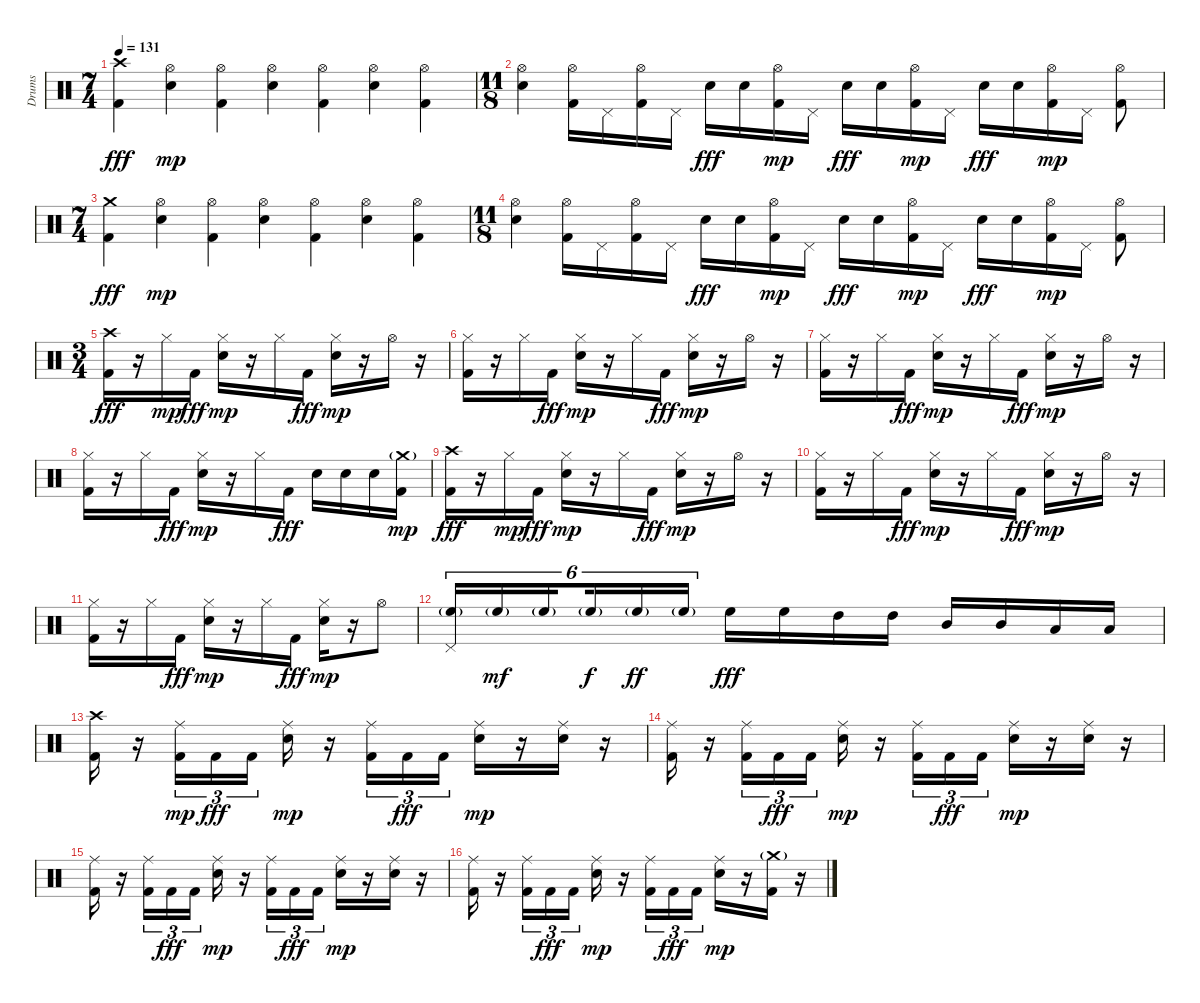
\track ("Drums" "Drums") {instrument percussion}
\staff {score}
\articulation defaults
\ts (7 4)
\tempo 131
\clef neutral
\ks c
("Kick (hit) 2" "Crash high (hit)").4{dy fff} ("Electric Snare (hit)" "Hi-Hat (open)").4{dy mp} ("Kick (hit) 2" "Hi-Hat (open)").4 ("Electric Snare (hit)" "Hi-Hat (open)").4 ("Kick (hit) 2" "Hi-Hat (open)").4 ("Electric Snare (hit)" "Hi-Hat (open)").4 ("Kick (hit) 2" "Hi-Hat (open)").4 |
\ts (11 8)
("Electric Snare (hit)" "Hi-Hat (open)").4 ("Kick (hit) 2" "Hi-Hat (open)").16 "Pedal Hi-Hat (hit)".16 ("Kick (hit) 2" "Hi-Hat (open)").16 "Pedal Hi-Hat (hit)".16 "Electric Snare (hit)".16{dy fff} "Electric Snare (hit)".16 ("Kick (hit) 2" "Hi-Hat (open)").16{dy mp} "Pedal Hi-Hat (hit)".16 "Electric Snare (hit)".16{dy fff} "Electric Snare (hit)".16 ("Kick (hit) 2" "Hi-Hat (open)").16{dy mp} "Pedal Hi-Hat (hit)".16 "Electric Snare (hit)".16{dy fff} "Electric Snare (hit)".16 ("Kick (hit) 2" "Hi-Hat (open)").16{dy mp} "Pedal Hi-Hat (hit)".16 ("Kick (hit) 2" "Hi-Hat (open)").8 |
\ts (7 4)
("Kick (hit) 2" "Crash medium (hit)").4{dy fff} ("Electric Snare (hit)" "Hi-Hat (open)").4{dy mp} ("Kick (hit) 2" "Hi-Hat (open)").4 ("Electric Snare (hit)" "Hi-Hat (open)").4 ("Kick (hit) 2" "Hi-Hat (open)").4 ("Electric Snare (hit)" "Hi-Hat (open)").4 ("Kick (hit) 2" "Hi-Hat (open)").4 |
\ts (11 8)
("Electric Snare (hit)" "Hi-Hat (open)").4 ("Kick (hit) 2" "Hi-Hat (open)").16 "Pedal Hi-Hat (hit)".16 ("Kick (hit) 2" "Hi-Hat (open)").16 "Pedal Hi-Hat (hit)".16 "Electric Snare (hit)".16{dy fff} "Electric Snare (hit)".16 ("Kick (hit) 2" "Hi-Hat (open)").16{dy mp} "Pedal Hi-Hat (hit)".16 "Electric Snare (hit)".16{dy fff} "Electric Snare (hit)".16 ("Kick (hit) 2" "Hi-Hat (open)").16{dy mp} "Pedal Hi-Hat (hit)".16 "Electric Snare (hit)".16{dy fff} "Electric Snare (hit)".16 ("Kick (hit) 2" "Hi-Hat (open)").16{dy mp} "Pedal Hi-Hat (hit)".16 ("Kick (hit) 2" "Hi-Hat (open)").8 |
\ts (3 4)
("Kick (hit) 2" "Crash high (hit)").16{dy fff} r.16 "Hi-Hat (closed)".16{dy mp} "Kick (hit) 2".16{dy fff} ("Electric Snare (hit)" "Hi-Hat (closed)").16{dy mp} r.16 "Hi-Hat (closed)".16 "Kick (hit) 2".16{dy fff} ("Electric Snare (hit)" "Hi-Hat (closed)").16{dy mp} r.16 "Hi-Hat (open)".16 r.16 |
("Kick (hit) 2" "Hi-Hat (closed)").16 r.16 "Hi-Hat (closed)".16 "Kick (hit) 2".16{dy fff} ("Electric Snare (hit)" "Hi-Hat (closed)").16{dy mp} r.16 "Hi-Hat (closed)".16 "Kick (hit) 2".16{dy fff} ("Electric Snare (hit)" "Hi-Hat (closed)").16{dy mp} r.16 "Hi-Hat (open)".16 r.16 |
("Kick (hit) 2" "Hi-Hat (closed)").16 r.16 "Hi-Hat (closed)".16 "Kick (hit) 2".16{dy fff} ("Electric Snare (hit)" "Hi-Hat (closed)").16{dy mp} r.16 "Hi-Hat (closed)".16 "Kick (hit) 2".16{dy fff} ("Electric Snare (hit)" "Hi-Hat (closed)").16{dy mp} r.16 "Hi-Hat (open)".16 r.16 |
("Kick (hit) 2" "Hi-Hat (closed)").16 r.16 "Hi-Hat (closed)".16 "Kick (hit) 2".16{dy fff} ("Electric Snare (hit)" "Hi-Hat (closed)").16{dy mp} r.16 "Hi-Hat (closed)".16 "Kick (hit) 2".16{dy fff} "Electric Snare (hit)".16 "Electric Snare (hit)".16 "Electric Snare (hit)".16 ("Kick (hit) 2" "Crash medium (hit)"{g}).16{dy mp} |
("Kick (hit) 2" "Crash high (hit)").16{dy fff} r.16 "Hi-Hat (closed)".16{dy mp} "Kick (hit) 2".16{dy fff} ("Electric Snare (hit)" "Hi-Hat (closed)").16{dy mp} r.16 "Hi-Hat (closed)".16 "Kick (hit) 2".16{dy fff} ("Electric Snare (hit)" "Hi-Hat (closed)").16{dy mp} r.16 "Hi-Hat (open)".16 r.16 |
("Kick (hit) 2" "Hi-Hat (closed)").16 r.16 "Hi-Hat (closed)".16 "Kick (hit) 2".16{dy fff} ("Electric Snare (hit)" "Hi-Hat (closed)").16{dy mp} r.16 "Hi-Hat (closed)".16 "Kick (hit) 2".16{dy fff} ("Electric Snare (hit)" "Hi-Hat (closed)").16{dy mp} r.16 "Hi-Hat (open)".16 r.16 |
("Kick (hit) 2" "Hi-Hat (closed)").16 r.16 "Hi-Hat (closed)".16 "Kick (hit) 2".16{dy fff} ("Electric Snare (hit)" "Hi-Hat (closed)").16{dy mp} r.16 "Hi-Hat (closed)".16 "Kick (hit) 2".16{dy fff} ("Electric Snare (hit)" "Hi-Hat (closed)").16{dy mp} r.16 "Hi-Hat (open)".8 |
("High Floor Tom (hit)"{g} "Pedal Hi-Hat (hit)").16{tu (6 4)} "High Floor Tom (hit)"{g}.16{tu (6 4) dy mf} "High Floor Tom (hit)"{g}.16{tu (6 4) beam splitsecondary} "High Floor Tom (hit)"{g}.16{tu (6 4) dy f} "High Floor Tom (hit)"{g}.16{tu (6 4) dy ff} "High Floor Tom (hit)"{g}.16{tu (6 4)} "High Floor Tom (hit)".16{dy fff} "High Floor Tom (hit)".16 "High Tom (hit)".16 "High Tom (hit)".16 "Mid Tom (hit)".16 "Mid Tom (hit)".16 "Low Tom (hit)".16 "Low Tom (hit)".16 |
("Kick (hit) 2" "Crash high (hit)").16 r.16 ("Kick (hit) 2" "Ride (middle)").16{tu (3 2) dy mp} "Kick (hit) 2".16{tu (3 2) dy fff} "Kick (hit) 2".16{tu (3 2)} ("Electric Snare (hit)" "Ride (middle)").16{dy mp} r.16 ("Kick (hit) 2" "Ride (middle)").16{tu (3 2)} "Kick (hit) 2".16{tu (3 2) dy fff} "Kick (hit) 2".16{tu (3 2)} ("Electric Snare (hit)" "Ride (middle)").16{dy mp} r.16 ("Electric Snare (hit)" "Ride (middle)").16 r.16 |
("Kick (hit) 2" "Ride (middle)").16 r.16 ("Kick (hit) 2" "Ride (middle)").16{tu (3 2)} "Kick (hit) 2".16{tu (3 2) dy fff} "Kick (hit) 2".16{tu (3 2)} ("Electric Snare (hit)" "Ride (middle)").16{dy mp} r.16 ("Kick (hit) 2" "Ride (middle)").16{tu (3 2)} "Kick (hit) 2".16{tu (3 2) dy fff} "Kick (hit) 2".16{tu (3 2)} ("Electric Snare (hit)" "Ride (middle)").16{dy mp} r.16 ("Electric Snare (hit)" "Ride (middle)").16 r.16 |
("Kick (hit) 2" "Ride (middle)").16 r.16 ("Kick (hit) 2" "Ride (middle)").16{tu (3 2)} "Kick (hit) 2".16{tu (3 2) dy fff} "Kick (hit) 2".16{tu (3 2)} ("Electric Snare (hit)" "Ride (middle)").16{dy mp} r.16 ("Kick (hit) 2" "Ride (middle)").16{tu (3 2)} "Kick (hit) 2".16{tu (3 2) dy fff} "Kick (hit) 2".16{tu (3 2)} ("Electric Snare (hit)" "Ride (middle)").16{dy mp} r.16 ("Electric Snare (hit)" "Ride (middle)").16 r.16 |
("Kick (hit) 2" "Ride (middle)").16 r.16 ("Kick (hit) 2" "Ride (middle)").16{tu (3 2)} "Kick (hit) 2".16{tu (3 2) dy fff} "Kick (hit) 2".16{tu (3 2)} ("Electric Snare (hit)" "Ride (middle)").16{dy mp} r.16 ("Kick (hit) 2" "Ride (middle)").16{tu (3 2)} "Kick (hit) 2".16{tu (3 2) dy fff} "Kick (hit) 2".16{tu (3 2)} ("Electric Snare (hit)" "Ride (middle)").16{dy mp} r.16 ("Kick (hit) 2" "Crash medium (hit)"{g}).16 r.16
